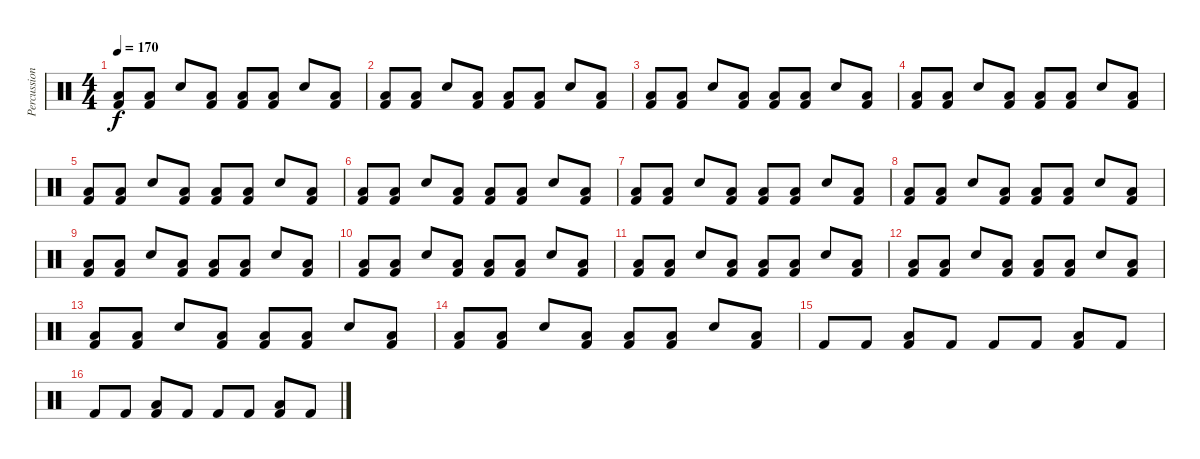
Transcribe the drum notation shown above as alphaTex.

\track ("Percussion" "Percussion") {instrument percussion}
\staff {score}
\articulation defaults
\ts (4 4)
\tempo 170
\clef neutral
\ks c
("Low Floor Tom (hit)" "Kick (hit) 2").8{dy f} ("Low Floor Tom (hit)" "Kick (hit) 2").8 "Snare (hit) 2".8 ("Low Floor Tom (hit)" "Kick (hit) 2").8 ("Low Floor Tom (hit)" "Kick (hit) 2").8 ("Low Floor Tom (hit)" "Kick (hit) 2").8 "Snare (hit) 2".8 ("Low Floor Tom (hit)" "Kick (hit) 2").8 |
("Low Floor Tom (hit)" "Kick (hit) 2").8 ("Low Floor Tom (hit)" "Kick (hit) 2").8 "Snare (hit) 2".8 ("Low Floor Tom (hit)" "Kick (hit) 2").8 ("Low Floor Tom (hit)" "Kick (hit) 2").8 ("Low Floor Tom (hit)" "Kick (hit) 2").8 "Snare (hit) 2".8 ("Low Floor Tom (hit)" "Kick (hit) 2").8 |
("Low Floor Tom (hit)" "Kick (hit) 2").8 ("Low Floor Tom (hit)" "Kick (hit) 2").8 "Snare (hit) 2".8 ("Low Floor Tom (hit)" "Kick (hit) 2").8 ("Low Floor Tom (hit)" "Kick (hit) 2").8 ("Low Floor Tom (hit)" "Kick (hit) 2").8 "Snare (hit) 2".8 ("Low Floor Tom (hit)" "Kick (hit) 2").8 |
("Low Floor Tom (hit)" "Kick (hit) 2").8 ("Low Floor Tom (hit)" "Kick (hit) 2").8 "Snare (hit) 2".8 ("Low Floor Tom (hit)" "Kick (hit) 2").8 ("Low Floor Tom (hit)" "Kick (hit) 2").8 ("Low Floor Tom (hit)" "Kick (hit) 2").8 "Snare (hit) 2".8 ("Low Floor Tom (hit)" "Kick (hit) 2").8 |
("Low Floor Tom (hit)" "Kick (hit) 2").8 ("Low Floor Tom (hit)" "Kick (hit) 2").8 "Snare (hit) 2".8 ("Low Floor Tom (hit)" "Kick (hit) 2").8 ("Low Floor Tom (hit)" "Kick (hit) 2").8 ("Low Floor Tom (hit)" "Kick (hit) 2").8 "Snare (hit) 2".8 ("Low Floor Tom (hit)" "Kick (hit) 2").8 |
("Low Floor Tom (hit)" "Kick (hit) 2").8 ("Low Floor Tom (hit)" "Kick (hit) 2").8 "Snare (hit) 2".8 ("Low Floor Tom (hit)" "Kick (hit) 2").8 ("Low Floor Tom (hit)" "Kick (hit) 2").8 ("Low Floor Tom (hit)" "Kick (hit) 2").8 "Snare (hit) 2".8 ("Low Floor Tom (hit)" "Kick (hit) 2").8 |
("Low Floor Tom (hit)" "Kick (hit) 2").8 ("Low Floor Tom (hit)" "Kick (hit) 2").8 "Snare (hit) 2".8 ("Low Floor Tom (hit)" "Kick (hit) 2").8 ("Low Floor Tom (hit)" "Kick (hit) 2").8 ("Low Floor Tom (hit)" "Kick (hit) 2").8 "Snare (hit) 2".8 ("Low Floor Tom (hit)" "Kick (hit) 2").8 |
("Low Floor Tom (hit)" "Kick (hit) 2").8 ("Low Floor Tom (hit)" "Kick (hit) 2").8 "Snare (hit) 2".8 ("Low Floor Tom (hit)" "Kick (hit) 2").8 ("Low Floor Tom (hit)" "Kick (hit) 2").8 ("Low Floor Tom (hit)" "Kick (hit) 2").8 "Snare (hit) 2".8 ("Low Floor Tom (hit)" "Kick (hit) 2").8 |
("Low Floor Tom (hit)" "Kick (hit) 2").8 ("Low Floor Tom (hit)" "Kick (hit) 2").8 "Snare (hit) 2".8 ("Low Floor Tom (hit)" "Kick (hit) 2").8 ("Low Floor Tom (hit)" "Kick (hit) 2").8 ("Low Floor Tom (hit)" "Kick (hit) 2").8 "Snare (hit) 2".8 ("Low Floor Tom (hit)" "Kick (hit) 2").8 |
("Low Floor Tom (hit)" "Kick (hit) 2").8 ("Low Floor Tom (hit)" "Kick (hit) 2").8 "Snare (hit) 2".8 ("Low Floor Tom (hit)" "Kick (hit) 2").8 ("Low Floor Tom (hit)" "Kick (hit) 2").8 ("Low Floor Tom (hit)" "Kick (hit) 2").8 "Snare (hit) 2".8 ("Low Floor Tom (hit)" "Kick (hit) 2").8 |
("Low Floor Tom (hit)" "Kick (hit) 2").8 ("Low Floor Tom (hit)" "Kick (hit) 2").8 "Snare (hit) 2".8 ("Low Floor Tom (hit)" "Kick (hit) 2").8 ("Low Floor Tom (hit)" "Kick (hit) 2").8 ("Low Floor Tom (hit)" "Kick (hit) 2").8 "Snare (hit) 2".8 ("Low Floor Tom (hit)" "Kick (hit) 2").8 |
("Low Floor Tom (hit)" "Kick (hit) 2").8 ("Low Floor Tom (hit)" "Kick (hit) 2").8 "Snare (hit) 2".8 ("Low Floor Tom (hit)" "Kick (hit) 2").8 ("Low Floor Tom (hit)" "Kick (hit) 2").8 ("Low Floor Tom (hit)" "Kick (hit) 2").8 "Snare (hit) 2".8 ("Low Floor Tom (hit)" "Kick (hit) 2").8 |
("Low Floor Tom (hit)" "Kick (hit) 2").8 ("Low Floor Tom (hit)" "Kick (hit) 2").8 "Snare (hit) 2".8 ("Low Floor Tom (hit)" "Kick (hit) 2").8 ("Low Floor Tom (hit)" "Kick (hit) 2").8 ("Low Floor Tom (hit)" "Kick (hit) 2").8 "Snare (hit) 2".8 ("Low Floor Tom (hit)" "Kick (hit) 2").8 |
("Low Floor Tom (hit)" "Kick (hit) 2").8 ("Low Floor Tom (hit)" "Kick (hit) 2").8 "Snare (hit) 2".8 ("Low Floor Tom (hit)" "Kick (hit) 2").8 ("Low Floor Tom (hit)" "Kick (hit) 2").8 ("Low Floor Tom (hit)" "Kick (hit) 2").8 "Snare (hit) 2".8 ("Low Floor Tom (hit)" "Kick (hit) 2").8 |
"Kick (hit) 2".8 "Kick (hit) 2".8 ("Low Floor Tom (hit)" "Kick (hit) 2").8 "Kick (hit) 2".8 "Kick (hit) 2".8 "Kick (hit) 2".8 ("Low Floor Tom (hit)" "Kick (hit) 2").8 "Kick (hit) 2".8 |
"Kick (hit) 2".8 "Kick (hit) 2".8 ("Low Floor Tom (hit)" "Kick (hit) 2").8 "Kick (hit) 2".8 "Kick (hit) 2".8 "Kick (hit) 2".8 ("Low Floor Tom (hit)" "Kick (hit) 2").8 "Kick (hit) 2".8
